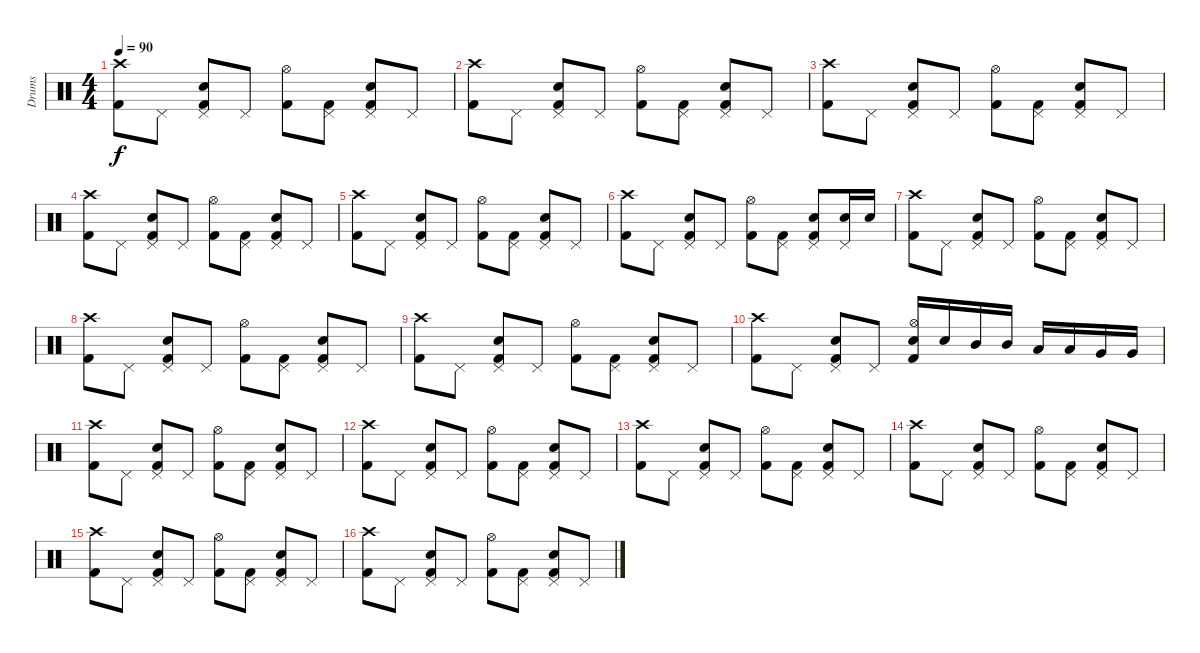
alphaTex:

\track ("Drums" "Drums") {instrument percussion}
\staff {score}
\articulation defaults
\ts (4 4)
\tempo 90
\clef neutral
\ks c
("Crash high (hit)" "Kick (hit) 2").8{dy f} "Pedal Hi-Hat (hit)".8 ("Pedal Hi-Hat (hit)" "Electric Snare (hit)" "Kick (hit) 2").8 "Pedal Hi-Hat (hit)".8 ("Hi-Hat (open)" "Kick (hit) 2").8 ("Pedal Hi-Hat (hit)" "Kick (hit) 2").8 ("Pedal Hi-Hat (hit)" "Electric Snare (hit)" "Kick (hit) 2").8 "Pedal Hi-Hat (hit)".8 |
("Crash high (hit)" "Kick (hit) 2").8 "Pedal Hi-Hat (hit)".8 ("Pedal Hi-Hat (hit)" "Electric Snare (hit)" "Kick (hit) 2").8 "Pedal Hi-Hat (hit)".8 ("Hi-Hat (open)" "Kick (hit) 2").8 ("Pedal Hi-Hat (hit)" "Kick (hit) 2").8 ("Pedal Hi-Hat (hit)" "Electric Snare (hit)" "Kick (hit) 2").8 "Pedal Hi-Hat (hit)".8 |
("Crash high (hit)" "Kick (hit) 2").8 "Pedal Hi-Hat (hit)".8 ("Pedal Hi-Hat (hit)" "Electric Snare (hit)" "Kick (hit) 2").8 "Pedal Hi-Hat (hit)".8 ("Hi-Hat (open)" "Kick (hit) 2").8 ("Pedal Hi-Hat (hit)" "Kick (hit) 2").8 ("Pedal Hi-Hat (hit)" "Electric Snare (hit)" "Kick (hit) 2").8 "Pedal Hi-Hat (hit)".8 |
("Crash high (hit)" "Kick (hit) 2").8 "Pedal Hi-Hat (hit)".8 ("Pedal Hi-Hat (hit)" "Electric Snare (hit)" "Kick (hit) 2").8 "Pedal Hi-Hat (hit)".8 ("Hi-Hat (open)" "Kick (hit) 2").8 ("Pedal Hi-Hat (hit)" "Kick (hit) 2").8 ("Pedal Hi-Hat (hit)" "Electric Snare (hit)" "Kick (hit) 2").8 "Pedal Hi-Hat (hit)".8 |
("Crash high (hit)" "Kick (hit) 2").8 "Pedal Hi-Hat (hit)".8 ("Pedal Hi-Hat (hit)" "Electric Snare (hit)" "Kick (hit) 2").8 "Pedal Hi-Hat (hit)".8 ("Hi-Hat (open)" "Kick (hit) 2").8 ("Pedal Hi-Hat (hit)" "Kick (hit) 2").8 ("Pedal Hi-Hat (hit)" "Electric Snare (hit)" "Kick (hit) 2").8 "Pedal Hi-Hat (hit)".8 |
("Crash high (hit)" "Kick (hit) 2").8 "Pedal Hi-Hat (hit)".8 ("Pedal Hi-Hat (hit)" "Electric Snare (hit)" "Kick (hit) 2").8 "Pedal Hi-Hat (hit)".8 ("Hi-Hat (open)" "Kick (hit) 2").8 ("Pedal Hi-Hat (hit)" "Kick (hit) 2").8 ("Pedal Hi-Hat (hit)" "Electric Snare (hit)" "Kick (hit) 2").8 ("Pedal Hi-Hat (hit)" "Electric Snare (hit)").16 "Electric Snare (hit)".16 |
("Crash high (hit)" "Kick (hit) 2").8 "Pedal Hi-Hat (hit)".8 ("Pedal Hi-Hat (hit)" "Electric Snare (hit)" "Kick (hit) 2").8 "Pedal Hi-Hat (hit)".8 ("Hi-Hat (open)" "Kick (hit) 2").8 ("Pedal Hi-Hat (hit)" "Kick (hit) 2").8 ("Pedal Hi-Hat (hit)" "Electric Snare (hit)" "Kick (hit) 2").8 "Pedal Hi-Hat (hit)".8 |
("Crash high (hit)" "Kick (hit) 2").8 "Pedal Hi-Hat (hit)".8 ("Pedal Hi-Hat (hit)" "Electric Snare (hit)" "Kick (hit) 2").8 "Pedal Hi-Hat (hit)".8 ("Hi-Hat (open)" "Kick (hit) 2").8 ("Pedal Hi-Hat (hit)" "Kick (hit) 2").8 ("Pedal Hi-Hat (hit)" "Electric Snare (hit)" "Kick (hit) 2").8 "Pedal Hi-Hat (hit)".8 |
("Crash high (hit)" "Kick (hit) 2").8 "Pedal Hi-Hat (hit)".8 ("Pedal Hi-Hat (hit)" "Electric Snare (hit)" "Kick (hit) 2").8 "Pedal Hi-Hat (hit)".8 ("Hi-Hat (open)" "Kick (hit) 2").8 ("Pedal Hi-Hat (hit)" "Kick (hit) 2").8 ("Pedal Hi-Hat (hit)" "Electric Snare (hit)" "Kick (hit) 2").8 "Pedal Hi-Hat (hit)".8 |
("Crash high (hit)" "Kick (hit) 2").8 "Pedal Hi-Hat (hit)".8 ("Pedal Hi-Hat (hit)" "Electric Snare (hit)" "Kick (hit) 2").8 "Pedal Hi-Hat (hit)".8 ("Hi-Hat (open)" "Snare (hit) 2" "Kick (hit) 2").16 "Snare (hit) 2".16 "Mid Tom (hit)".16 "Mid Tom (hit)".16 "Low Tom (hit)".16 "Low Tom (hit)".16 "Very Low Tom (hit)".16 "Very Low Tom (hit)".16 |
("Crash high (hit)" "Kick (hit) 2").8 "Pedal Hi-Hat (hit)".8 ("Pedal Hi-Hat (hit)" "Electric Snare (hit)" "Kick (hit) 2").8 "Pedal Hi-Hat (hit)".8 ("Hi-Hat (open)" "Kick (hit) 2").8 ("Pedal Hi-Hat (hit)" "Kick (hit) 2").8 ("Pedal Hi-Hat (hit)" "Electric Snare (hit)" "Kick (hit) 2").8 "Pedal Hi-Hat (hit)".8 |
("Crash high (hit)" "Kick (hit) 2").8 "Pedal Hi-Hat (hit)".8 ("Pedal Hi-Hat (hit)" "Electric Snare (hit)" "Kick (hit) 2").8 "Pedal Hi-Hat (hit)".8 ("Hi-Hat (open)" "Kick (hit) 2").8 ("Pedal Hi-Hat (hit)" "Kick (hit) 2").8 ("Pedal Hi-Hat (hit)" "Electric Snare (hit)" "Kick (hit) 2").8 "Pedal Hi-Hat (hit)".8 |
("Crash high (hit)" "Kick (hit) 2").8 "Pedal Hi-Hat (hit)".8 ("Pedal Hi-Hat (hit)" "Electric Snare (hit)" "Kick (hit) 2").8 "Pedal Hi-Hat (hit)".8 ("Hi-Hat (open)" "Kick (hit) 2").8 ("Pedal Hi-Hat (hit)" "Kick (hit) 2").8 ("Pedal Hi-Hat (hit)" "Electric Snare (hit)" "Kick (hit) 2").8 "Pedal Hi-Hat (hit)".8 |
("Crash high (hit)" "Kick (hit) 2").8 "Pedal Hi-Hat (hit)".8 ("Pedal Hi-Hat (hit)" "Electric Snare (hit)" "Kick (hit) 2").8 "Pedal Hi-Hat (hit)".8 ("Hi-Hat (open)" "Kick (hit) 2").8 ("Pedal Hi-Hat (hit)" "Kick (hit) 2").8 ("Pedal Hi-Hat (hit)" "Electric Snare (hit)" "Kick (hit) 2").8 "Pedal Hi-Hat (hit)".8 |
("Crash high (hit)" "Kick (hit) 2").8 "Pedal Hi-Hat (hit)".8 ("Pedal Hi-Hat (hit)" "Electric Snare (hit)" "Kick (hit) 2").8 "Pedal Hi-Hat (hit)".8 ("Hi-Hat (open)" "Kick (hit) 2").8 ("Pedal Hi-Hat (hit)" "Kick (hit) 2").8 ("Pedal Hi-Hat (hit)" "Electric Snare (hit)" "Kick (hit) 2").8 "Pedal Hi-Hat (hit)".8 |
("Crash high (hit)" "Kick (hit) 2").8 "Pedal Hi-Hat (hit)".8 ("Pedal Hi-Hat (hit)" "Electric Snare (hit)" "Kick (hit) 2").8 "Pedal Hi-Hat (hit)".8 ("Hi-Hat (open)" "Kick (hit) 2").8 ("Pedal Hi-Hat (hit)" "Kick (hit) 2").8 ("Pedal Hi-Hat (hit)" "Electric Snare (hit)" "Kick (hit) 2").8 "Pedal Hi-Hat (hit)".8
